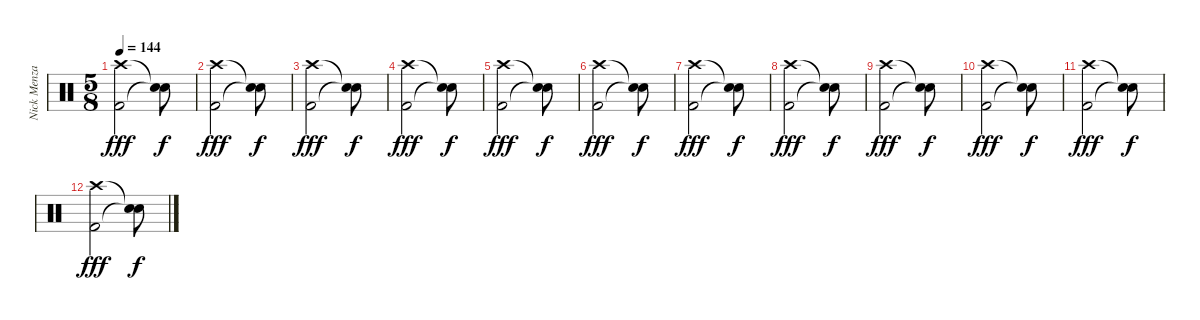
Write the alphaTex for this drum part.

\track ("Nick Menza" "Nick Menza") {instrument percussion}
\staff {score}
\articulation defaults
\ts (5 8)
\tempo 144
\clef neutral
\ks c
("Kick (hit) 2" "Crash high (hit)").2{dy fff volume 11} ("Snare (hit)"{t} "Snare (hit)"{t}).8{dy f} |
("Kick (hit) 2" "Crash high (hit)").2{dy fff volume 10} ("Snare (hit)"{t} "Snare (hit)"{t}).8{dy f} |
("Kick (hit) 2" "Crash high (hit)").2{dy fff volume 9} ("Snare (hit)"{t} "Snare (hit)"{t}).8{dy f} |
("Kick (hit) 2" "Crash high (hit)").2{dy fff volume 8} ("Snare (hit)"{t} "Snare (hit)"{t}).8{dy f} |
("Kick (hit) 2" "Crash high (hit)").2{dy fff volume 7} ("Snare (hit)"{t} "Snare (hit)"{t}).8{dy f} |
("Kick (hit) 2" "Crash high (hit)").2{dy fff volume 6} ("Snare (hit)"{t} "Snare (hit)"{t}).8{dy f} |
("Kick (hit) 2" "Crash high (hit)").2{dy fff volume 5} ("Snare (hit)"{t} "Snare (hit)"{t}).8{dy f} |
("Kick (hit) 2" "Crash high (hit)").2{dy fff volume 4} ("Snare (hit)"{t} "Snare (hit)"{t}).8{dy f} |
("Kick (hit) 2" "Crash high (hit)").2{dy fff volume 3} ("Snare (hit)"{t} "Snare (hit)"{t}).8{dy f} |
("Kick (hit) 2" "Crash high (hit)").2{dy fff volume 2} ("Snare (hit)"{t} "Snare (hit)"{t}).8{dy f} |
("Kick (hit) 2" "Crash high (hit)").2{dy fff volume 1} ("Snare (hit)"{t} "Snare (hit)"{t}).8{dy f} |
("Kick (hit) 2" "Crash high (hit)").2{dy fff volume 0} ("Snare (hit)"{t} "Snare (hit)"{t}).8{dy f}
